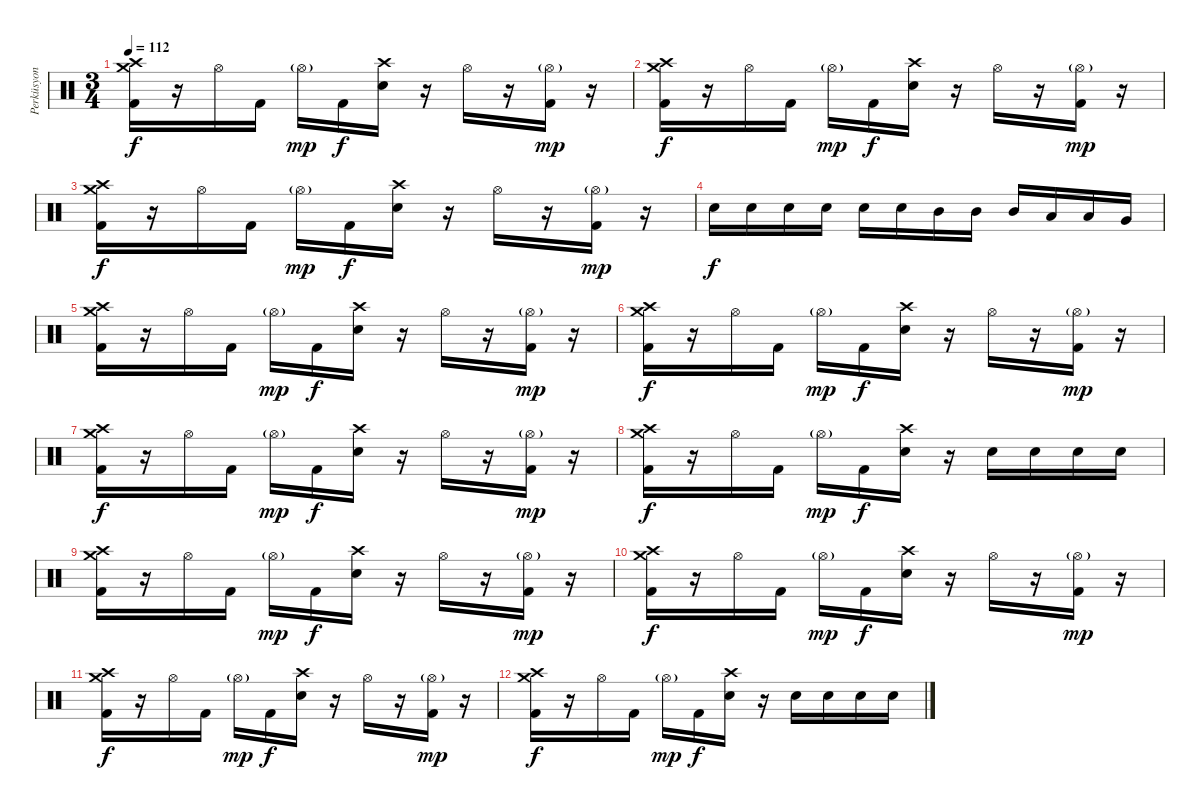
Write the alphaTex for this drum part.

\track ("Perküsyon" "Perküsyon") {instrument percussion}
\staff {score}
\articulation defaults
\ts (3 4)
\tempo 112
\clef neutral
\ks c
("Crash high (hit)" "Crash medium (hit)" "Kick (hit) 2").16{dy f} r.16 "Hi-Hat (open)".16 "Kick (hit) 2".16 "Hi-Hat (open)"{g}.16{dy mp} "Kick (hit) 2".16{dy f} ("Crash high (hit)" "Electric Snare (hit)").16 r.16 "Hi-Hat (open)".16 r.16 ("Hi-Hat (open)"{g} "Kick (hit) 2").16{dy mp} r.16 |
("Crash high (hit)" "Crash medium (hit)" "Kick (hit) 2").16{dy f} r.16 "Hi-Hat (open)".16 "Kick (hit) 2".16 "Hi-Hat (open)"{g}.16{dy mp} "Kick (hit) 2".16{dy f} ("Crash high (hit)" "Electric Snare (hit)").16 r.16 "Hi-Hat (open)".16 r.16 ("Hi-Hat (open)"{g} "Kick (hit) 2").16{dy mp} r.16 |
("Crash high (hit)" "Crash medium (hit)" "Kick (hit) 2").16{dy f} r.16 "Hi-Hat (open)".16 "Kick (hit) 2".16 "Hi-Hat (open)"{g}.16{dy mp} "Kick (hit) 2".16{dy f} ("Crash high (hit)" "Electric Snare (hit)").16 r.16 "Hi-Hat (open)".16 r.16 ("Hi-Hat (open)"{g} "Kick (hit) 2").16{dy mp} r.16 |
"Electric Snare (hit)".16{dy f} "Electric Snare (hit)".16 "Electric Snare (hit)".16 "Electric Snare (hit)".16 "Electric Snare (hit)".16 "Electric Snare (hit)".16 "Mid Tom (hit)".16 "Mid Tom (hit)".16 "Mid Tom (hit)".16 "Low Tom (hit)".16 "Low Tom (hit)".16 "Very Low Tom (hit)".16 |
("Crash high (hit)" "Crash medium (hit)" "Kick (hit) 2").16 r.16 "Hi-Hat (open)".16 "Kick (hit) 2".16 "Hi-Hat (open)"{g}.16{dy mp} "Kick (hit) 2".16{dy f} ("Crash high (hit)" "Electric Snare (hit)").16 r.16 "Hi-Hat (open)".16 r.16 ("Hi-Hat (open)"{g} "Kick (hit) 2").16{dy mp} r.16 |
("Crash high (hit)" "Crash medium (hit)" "Kick (hit) 2").16{dy f} r.16 "Hi-Hat (open)".16 "Kick (hit) 2".16 "Hi-Hat (open)"{g}.16{dy mp} "Kick (hit) 2".16{dy f} ("Crash high (hit)" "Electric Snare (hit)").16 r.16 "Hi-Hat (open)".16 r.16 ("Hi-Hat (open)"{g} "Kick (hit) 2").16{dy mp} r.16 |
("Crash high (hit)" "Crash medium (hit)" "Kick (hit) 2").16{dy f} r.16 "Hi-Hat (open)".16 "Kick (hit) 2".16 "Hi-Hat (open)"{g}.16{dy mp} "Kick (hit) 2".16{dy f} ("Crash high (hit)" "Electric Snare (hit)").16 r.16 "Hi-Hat (open)".16 r.16 ("Hi-Hat (open)"{g} "Kick (hit) 2").16{dy mp} r.16 |
("Crash high (hit)" "Crash medium (hit)" "Kick (hit) 2").16{dy f} r.16 "Hi-Hat (open)".16 "Kick (hit) 2".16 "Hi-Hat (open)"{g}.16{dy mp} "Kick (hit) 2".16{dy f} ("Crash high (hit)" "Electric Snare (hit)").16 r.16 "Electric Snare (hit)".16 "Electric Snare (hit)".16 "Electric Snare (hit)".16 "Electric Snare (hit)".16 |
("Crash high (hit)" "Crash medium (hit)" "Kick (hit) 2").16 r.16 "Hi-Hat (open)".16 "Kick (hit) 2".16 "Hi-Hat (open)"{g}.16{dy mp} "Kick (hit) 2".16{dy f} ("Crash high (hit)" "Electric Snare (hit)").16 r.16 "Hi-Hat (open)".16 r.16 ("Hi-Hat (open)"{g} "Kick (hit) 2").16{dy mp} r.16 |
("Crash high (hit)" "Crash medium (hit)" "Kick (hit) 2").16{dy f} r.16 "Hi-Hat (open)".16 "Kick (hit) 2".16 "Hi-Hat (open)"{g}.16{dy mp} "Kick (hit) 2".16{dy f} ("Crash high (hit)" "Electric Snare (hit)").16 r.16 "Hi-Hat (open)".16 r.16 ("Hi-Hat (open)"{g} "Kick (hit) 2").16{dy mp} r.16 |
("Crash high (hit)" "Crash medium (hit)" "Kick (hit) 2").16{dy f} r.16 "Hi-Hat (open)".16 "Kick (hit) 2".16 "Hi-Hat (open)"{g}.16{dy mp} "Kick (hit) 2".16{dy f} ("Crash high (hit)" "Electric Snare (hit)").16 r.16 "Hi-Hat (open)".16 r.16 ("Hi-Hat (open)"{g} "Kick (hit) 2").16{dy mp} r.16 |
("Crash high (hit)" "Crash medium (hit)" "Kick (hit) 2").16{dy f} r.16 "Hi-Hat (open)".16 "Kick (hit) 2".16 "Hi-Hat (open)"{g}.16{dy mp} "Kick (hit) 2".16{dy f} ("Crash high (hit)" "Electric Snare (hit)").16 r.16 "Electric Snare (hit)".16 "Electric Snare (hit)".16 "Electric Snare (hit)".16 "Electric Snare (hit)".16
